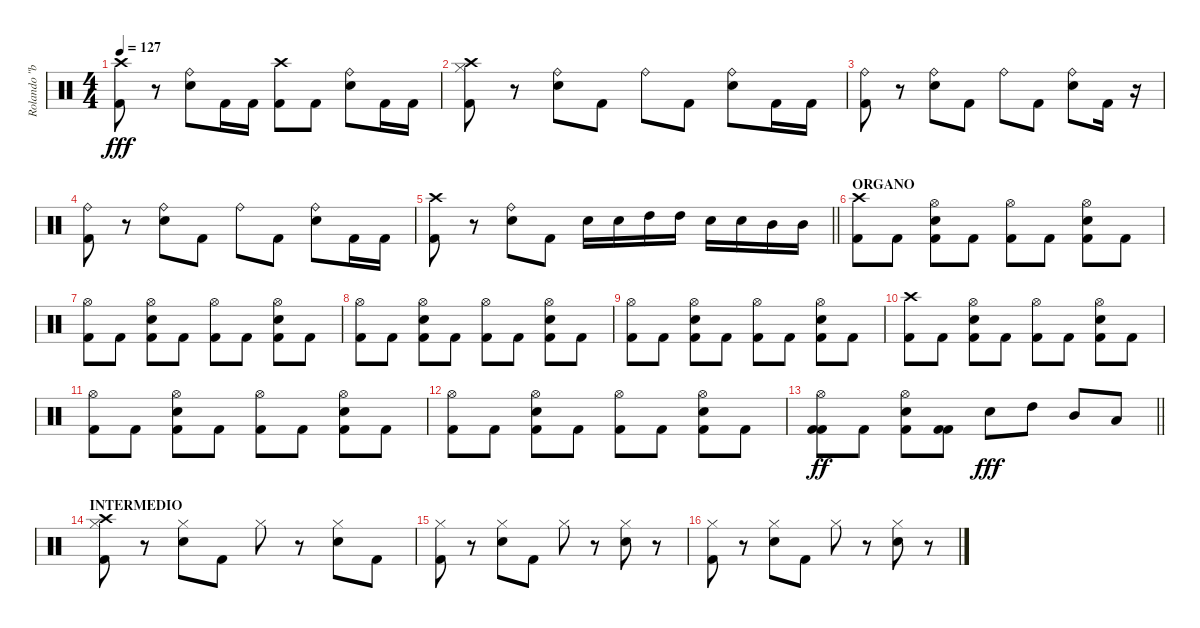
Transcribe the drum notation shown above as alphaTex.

\track ("Rolando \"bataka\"" "Rolando \"b") {instrument percussion}
\staff {score}
\articulation defaults
\ts (4 4)
\tempo 127
\clef neutral
\ks c
("Kick (hit) 2" "Crash high (hit)").8{dy fff} r.8 ("Electric Snare (hit)" "Ride (bell)").8 "Kick (hit) 2".16 "Kick (hit) 2".16 ("Kick (hit) 2" "Crash high (hit)").8 "Kick (hit) 2".8 ("Electric Snare (hit)" "Ride (bell)").8 "Kick (hit) 2".16 "Kick (hit) 2".16 |
("Kick (hit) 2" "Hi-Hat (closed)" "Crash high (hit)").8 r.8 ("Electric Snare (hit)" "Ride (bell)").8 "Kick (hit) 2".8 "Ride (bell)".8 "Kick (hit) 2".8 ("Electric Snare (hit)" "Ride (bell)").8 "Kick (hit) 2".16 "Kick (hit) 2".16 |
("Kick (hit) 2" "Ride (bell)").8 r.8 ("Electric Snare (hit)" "Ride (bell)").8 "Kick (hit) 2".8 "Ride (bell)".8 "Kick (hit) 2".8 ("Electric Snare (hit)" "Ride (bell)").8 "Kick (hit) 2".16 r.16 |
("Kick (hit) 2" "Ride (bell)").8 r.8 ("Electric Snare (hit)" "Ride (bell)").8 "Kick (hit) 2".8 "Ride (bell)".8 "Kick (hit) 2".8 ("Electric Snare (hit)" "Ride (bell)").8 "Kick (hit) 2".16 "Kick (hit) 2".16 |
\barLineRight lightlight
("Kick (hit) 2" "Crash high (hit)").8 r.8 ("Electric Snare (hit)" "Ride (bell)").8 "Kick (hit) 2".8 "Electric Snare (hit)".16 "Electric Snare (hit)".16 "High Tom (hit)".16 "High Tom (hit)".16 "Electric Snare (hit)".16 "Electric Snare (hit)".16 "Mid Tom (hit)".16 "Mid Tom (hit)".16 |
\section ("" "ORGANO")
("Kick (hit) 2" "Crash high (hit)").8 "Kick (hit) 2".8 ("Kick (hit) 2" "Electric Snare (hit)" "Hi-Hat (open)").8 "Kick (hit) 2".8 ("Kick (hit) 2" "Hi-Hat (open)").8 "Kick (hit) 2".8 ("Kick (hit) 2" "Electric Snare (hit)" "Hi-Hat (open)").8 "Kick (hit) 2".8 |
("Kick (hit) 2" "Hi-Hat (open)").8 "Kick (hit) 2".8 ("Kick (hit) 2" "Electric Snare (hit)" "Hi-Hat (open)").8 "Kick (hit) 2".8 ("Kick (hit) 2" "Hi-Hat (open)").8 "Kick (hit) 2".8 ("Kick (hit) 2" "Electric Snare (hit)" "Hi-Hat (open)").8 "Kick (hit) 2".8 |
("Kick (hit) 2" "Hi-Hat (open)").8 "Kick (hit) 2".8 ("Kick (hit) 2" "Electric Snare (hit)" "Hi-Hat (open)").8 "Kick (hit) 2".8 ("Kick (hit) 2" "Hi-Hat (open)").8 "Kick (hit) 2".8 ("Kick (hit) 2" "Electric Snare (hit)" "Hi-Hat (open)").8 "Kick (hit) 2".8 |
("Kick (hit) 2" "Hi-Hat (open)").8 "Kick (hit) 2".8 ("Kick (hit) 2" "Electric Snare (hit)" "Hi-Hat (open)").8 "Kick (hit) 2".8 ("Kick (hit) 2" "Hi-Hat (open)").8 "Kick (hit) 2".8 ("Kick (hit) 2" "Electric Snare (hit)" "Hi-Hat (open)").8 "Kick (hit) 2".8 |
("Kick (hit) 2" "Crash high (hit)").8 "Kick (hit) 2".8 ("Kick (hit) 2" "Electric Snare (hit)" "Hi-Hat (open)").8 "Kick (hit) 2".8 ("Kick (hit) 2" "Hi-Hat (open)").8 "Kick (hit) 2".8 ("Kick (hit) 2" "Electric Snare (hit)" "Hi-Hat (open)").8 "Kick (hit) 2".8 |
("Kick (hit) 2" "Hi-Hat (open)").8 "Kick (hit) 2".8 ("Kick (hit) 2" "Electric Snare (hit)" "Hi-Hat (open)").8 "Kick (hit) 2".8 ("Kick (hit) 2" "Hi-Hat (open)").8 "Kick (hit) 2".8 ("Kick (hit) 2" "Electric Snare (hit)" "Hi-Hat (open)").8 "Kick (hit) 2".8 |
("Kick (hit) 2" "Hi-Hat (open)").8 "Kick (hit) 2".8 ("Kick (hit) 2" "Electric Snare (hit)" "Hi-Hat (open)").8 "Kick (hit) 2".8 ("Kick (hit) 2" "Hi-Hat (open)").8 "Kick (hit) 2".8 ("Kick (hit) 2" "Electric Snare (hit)" "Hi-Hat (open)").8 "Kick (hit) 2".8 |
\barLineRight lightlight
("Kick (hit) 2" "Kick (hit) 2" "Hi-Hat (open)").8{dy ff} "Kick (hit) 2".8 ("Electric Snare (hit)" "Kick (hit) 2" "Hi-Hat (open)").8 ("Kick (hit) 2" "Kick (hit) 2").8 "Electric Snare (hit)".8{dy fff} "High Tom (hit)".8 "Mid Tom (hit)".8 "Low Tom (hit)".8 |
\section ("" "INTERMEDIO")
("Kick (hit) 2" "Hi-Hat (closed)" "Crash high (hit)").8 r.8 ("Electric Snare (hit)" "Hi-Hat (closed)").8 "Kick (hit) 2".8 "Hi-Hat (closed)".8 r.8 ("Electric Snare (hit)" "Hi-Hat (closed)").8 "Kick (hit) 2".8 |
("Kick (hit) 2" "Hi-Hat (closed)").8 r.8 ("Electric Snare (hit)" "Hi-Hat (closed)").8 "Kick (hit) 2".8 "Hi-Hat (closed)".8 r.8 ("Electric Snare (hit)" "Hi-Hat (closed)").8 r.8 |
("Kick (hit) 2" "Hi-Hat (closed)").8 r.8 ("Electric Snare (hit)" "Hi-Hat (closed)").8 "Kick (hit) 2".8 "Hi-Hat (closed)".8 r.8 ("Electric Snare (hit)" "Hi-Hat (closed)").8 r.8
